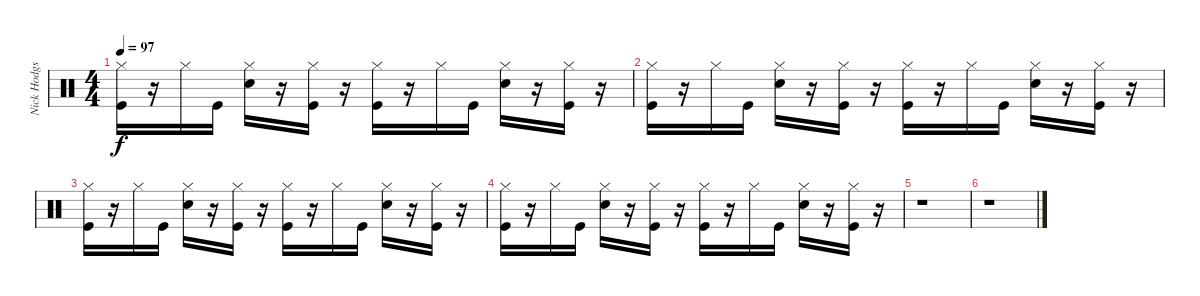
\track ("Nick Hodgson's drums" "Nick Hodgs") {instrument percussion}
\staff {score}
\articulation defaults
\ts (4 4)
\tempo 97
\clef neutral
\ks c
("Hi-Hat (closed)" "Kick (hit)").16{dy f} r.16 "Hi-Hat (closed)".16 "Kick (hit)".16 ("Hi-Hat (closed)" "Snare (hit) 2").16 r.16 ("Hi-Hat (closed)" "Kick (hit)").16 r.16 ("Hi-Hat (closed)" "Kick (hit)").16 r.16 "Hi-Hat (closed)".16 "Kick (hit)".16 ("Hi-Hat (closed)" "Snare (hit) 2").16 r.16 ("Hi-Hat (closed)" "Kick (hit)").16 r.16 |
("Hi-Hat (closed)" "Kick (hit)").16 r.16 "Hi-Hat (closed)".16 "Kick (hit)".16 ("Hi-Hat (closed)" "Snare (hit) 2").16 r.16 ("Hi-Hat (closed)" "Kick (hit)").16 r.16 ("Hi-Hat (closed)" "Kick (hit)").16 r.16 "Hi-Hat (closed)".16 "Kick (hit)".16 ("Hi-Hat (closed)" "Snare (hit) 2").16 r.16 ("Hi-Hat (closed)" "Kick (hit)").16 r.16 |
("Hi-Hat (closed)" "Kick (hit)").16 r.16 "Hi-Hat (closed)".16 "Kick (hit)".16 ("Hi-Hat (closed)" "Snare (hit) 2").16 r.16 ("Hi-Hat (closed)" "Kick (hit)").16 r.16 ("Hi-Hat (closed)" "Kick (hit)").16 r.16 "Hi-Hat (closed)".16 "Kick (hit)".16 ("Hi-Hat (closed)" "Snare (hit) 2").16 r.16 ("Hi-Hat (closed)" "Kick (hit)").16 r.16 |
("Hi-Hat (closed)" "Kick (hit)").16 r.16 "Hi-Hat (closed)".16 "Kick (hit)".16 ("Hi-Hat (closed)" "Snare (hit) 2").16 r.16 ("Hi-Hat (closed)" "Kick (hit)").16 r.16 ("Hi-Hat (closed)" "Kick (hit)").16 r.16 "Hi-Hat (closed)".16 "Kick (hit)".16 ("Hi-Hat (closed)" "Snare (hit) 2").16 r.16 ("Hi-Hat (closed)" "Kick (hit)").16 r.16 |
r.1 |
r.1
